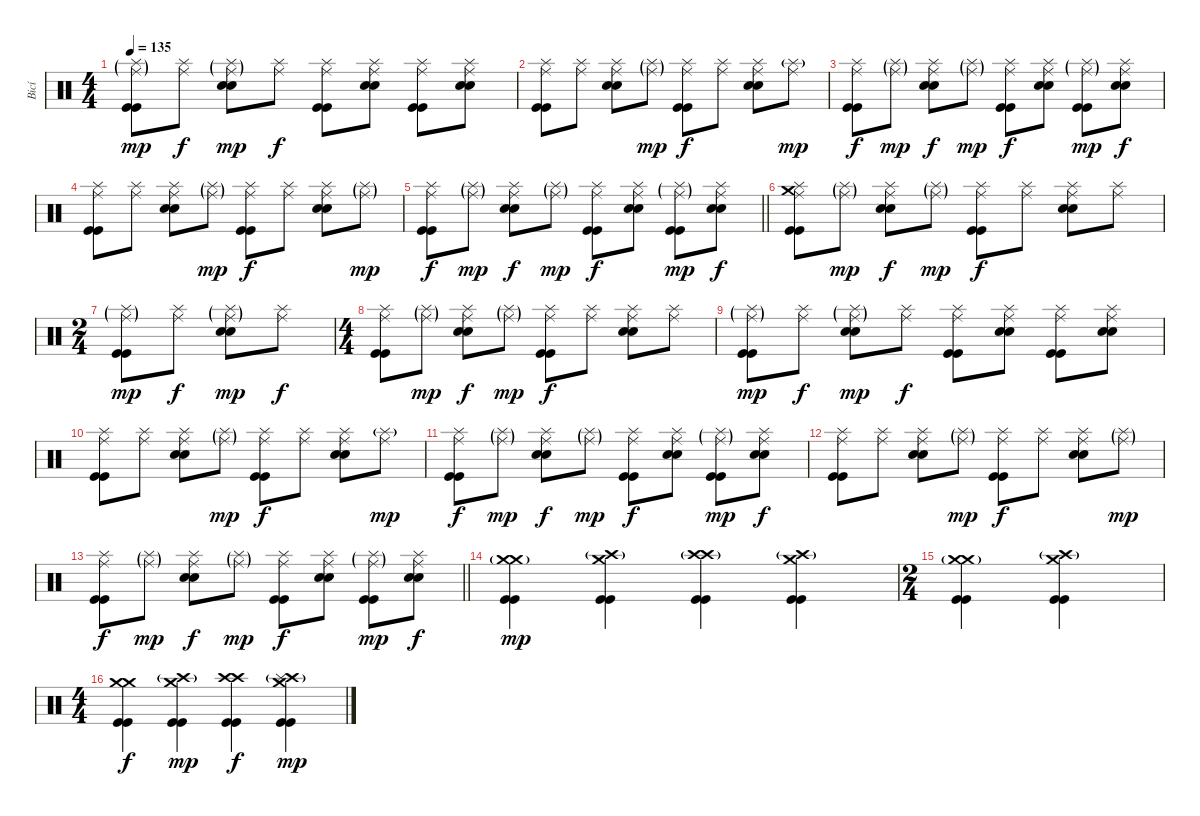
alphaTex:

\track ("Bicí" "Bicí") {instrument percussion}
\staff {score}
\articulation defaults
\ts (4 4)
\tempo 135
\clef neutral
\ks c
("Splash (hit)"{g} "Ride (middle)"{g} "Kick (hit)" "Kick (hit)").8{dy mp} ("Splash (hit)" "Ride (middle)").8{dy f} ("Splash (hit)"{g} "Ride (middle)"{g} "Electric Snare (hit)" "Electric Snare (hit)").8{dy mp} ("Splash (hit)" "Ride (middle)").8{dy f} ("Splash (hit)" "Ride (middle)" "Kick (hit)" "Kick (hit)").8 ("Splash (hit)" "Ride (middle)" "Electric Snare (hit)" "Electric Snare (hit)").8 ("Splash (hit)" "Ride (middle)" "Kick (hit)" "Kick (hit)").8 ("Splash (hit)" "Ride (middle)" "Electric Snare (hit)" "Electric Snare (hit)").8 |
("Splash (hit)" "Ride (middle)" "Kick (hit)" "Kick (hit)").8 ("Splash (hit)" "Ride (middle)").8 ("Splash (hit)" "Ride (middle)" "Electric Snare (hit)" "Electric Snare (hit)").8 ("Splash (hit)"{g} "Ride (middle)"{g}).8{dy mp} ("Splash (hit)" "Ride (middle)" "Kick (hit)" "Kick (hit)").8{dy f} ("Splash (hit)" "Ride (middle)").8 ("Splash (hit)" "Ride (middle)" "Electric Snare (hit)" "Electric Snare (hit)").8 ("Splash (hit)"{g} "Ride (middle)").8{dy mp} |
("Splash (hit)" "Ride (middle)" "Kick (hit)" "Kick (hit)").8{dy f} ("Splash (hit)"{g} "Ride (middle)"{g}).8{dy mp} ("Splash (hit)" "Ride (middle)" "Electric Snare (hit)" "Electric Snare (hit)").8{dy f} ("Splash (hit)"{g} "Ride (middle)"{g}).8{dy mp} ("Splash (hit)" "Ride (middle)" "Kick (hit)" "Kick (hit)").8{dy f} ("Splash (hit)" "Ride (middle)" "Electric Snare (hit)" "Electric Snare (hit)").8 ("Splash (hit)"{g} "Ride (middle)"{g} "Kick (hit)" "Kick (hit)").8{dy mp} ("Splash (hit)" "Ride (middle)" "Electric Snare (hit)" "Electric Snare (hit)").8{dy f} |
("Splash (hit)" "Ride (middle)" "Kick (hit)" "Kick (hit)").8 ("Splash (hit)" "Ride (middle)").8 ("Splash (hit)" "Ride (middle)" "Electric Snare (hit)" "Electric Snare (hit)").8 ("Splash (hit)"{g} "Ride (middle)"{g}).8{dy mp} ("Splash (hit)" "Ride (middle)" "Kick (hit)" "Kick (hit)").8{dy f} ("Splash (hit)" "Ride (middle)").8 ("Splash (hit)" "Ride (middle)" "Electric Snare (hit)" "Electric Snare (hit)").8 ("Splash (hit)"{g} "Ride (middle)"{g}).8{dy mp} |
\barLineRight lightlight
("Splash (hit)" "Ride (middle)" "Kick (hit)" "Kick (hit)").8{dy f} ("Splash (hit)"{g} "Ride (middle)"{g}).8{dy mp} ("Splash (hit)" "Ride (middle)" "Electric Snare (hit)" "Electric Snare (hit)").8{dy f} ("Splash (hit)"{g} "Ride (middle)"{g}).8{dy mp} ("Splash (hit)" "Ride (middle)" "Kick (hit)" "Kick (hit)").8{dy f} ("Splash (hit)" "Ride (middle)" "Electric Snare (hit)" "Electric Snare (hit)").8 ("Splash (hit)"{g} "Ride (middle)"{g} "Kick (hit)" "Kick (hit)").8{dy mp} ("Splash (hit)" "Ride (middle)" "Electric Snare (hit)" "Electric Snare (hit)").8{dy f} |
("Crash medium (hit)" "Splash (hit)" "Ride (middle)" "Kick (hit)" "Kick (hit)").8 ("Splash (hit)"{g} "Ride (middle)"{g}).8{dy mp} ("Splash (hit)" "Ride (middle)" "Electric Snare (hit)" "Electric Snare (hit)").8{dy f} ("Splash (hit)"{g} "Ride (middle)"{g}).8{dy mp} ("Splash (hit)" "Ride (middle)" "Kick (hit)" "Kick (hit)").8{dy f} ("Splash (hit)" "Ride (middle)").8 ("Splash (hit)" "Ride (middle)" "Electric Snare (hit)" "Electric Snare (hit)").8 ("Splash (hit)" "Ride (middle)").8 |
\ts (2 4)
("Splash (hit)"{g} "Ride (middle)"{g} "Kick (hit)" "Kick (hit)").8{dy mp} ("Splash (hit)" "Ride (middle)").8{dy f} ("Splash (hit)"{g} "Ride (middle)"{g} "Electric Snare (hit)" "Electric Snare (hit)").8{dy mp} ("Splash (hit)" "Ride (middle)").8{dy f} |
\ts (4 4)
("Splash (hit)" "Ride (middle)" "Kick (hit)" "Kick (hit)").8 ("Splash (hit)"{g} "Ride (middle)"{g}).8{dy mp} ("Splash (hit)" "Ride (middle)" "Electric Snare (hit)" "Electric Snare (hit)").8{dy f} ("Splash (hit)"{g} "Ride (middle)"{g}).8{dy mp} ("Splash (hit)" "Ride (middle)" "Kick (hit)" "Kick (hit)").8{dy f} ("Splash (hit)" "Ride (middle)").8 ("Splash (hit)" "Ride (middle)" "Electric Snare (hit)" "Electric Snare (hit)").8 ("Splash (hit)" "Ride (middle)").8 |
("Splash (hit)"{g} "Ride (middle)"{g} "Kick (hit)" "Kick (hit)").8{dy mp} ("Splash (hit)" "Ride (middle)").8{dy f} ("Splash (hit)"{g} "Ride (middle)"{g} "Electric Snare (hit)" "Electric Snare (hit)").8{dy mp} ("Splash (hit)" "Ride (middle)").8{dy f} ("Splash (hit)" "Ride (middle)" "Kick (hit)" "Kick (hit)").8 ("Splash (hit)" "Ride (middle)" "Electric Snare (hit)" "Electric Snare (hit)").8 ("Splash (hit)" "Ride (middle)" "Kick (hit)" "Kick (hit)").8 ("Splash (hit)" "Ride (middle)" "Electric Snare (hit)" "Electric Snare (hit)").8 |
("Splash (hit)" "Ride (middle)" "Kick (hit)" "Kick (hit)").8 ("Splash (hit)" "Ride (middle)").8 ("Splash (hit)" "Ride (middle)" "Electric Snare (hit)" "Electric Snare (hit)").8 ("Splash (hit)"{g} "Ride (middle)"{g}).8{dy mp} ("Splash (hit)" "Ride (middle)" "Kick (hit)" "Kick (hit)").8{dy f} ("Splash (hit)" "Ride (middle)").8 ("Splash (hit)" "Ride (middle)" "Electric Snare (hit)" "Electric Snare (hit)").8 ("Splash (hit)"{g} "Ride (middle)").8{dy mp} |
("Splash (hit)" "Ride (middle)" "Kick (hit)" "Kick (hit)").8{dy f} ("Splash (hit)"{g} "Ride (middle)"{g}).8{dy mp} ("Splash (hit)" "Ride (middle)" "Electric Snare (hit)" "Electric Snare (hit)").8{dy f} ("Splash (hit)"{g} "Ride (middle)"{g}).8{dy mp} ("Splash (hit)" "Ride (middle)" "Kick (hit)" "Kick (hit)").8{dy f} ("Splash (hit)" "Ride (middle)" "Electric Snare (hit)" "Electric Snare (hit)").8 ("Splash (hit)"{g} "Ride (middle)"{g} "Kick (hit)" "Kick (hit)").8{dy mp} ("Splash (hit)" "Ride (middle)" "Electric Snare (hit)" "Electric Snare (hit)").8{dy f} |
("Splash (hit)" "Ride (middle)" "Kick (hit)" "Kick (hit)").8 ("Splash (hit)" "Ride (middle)").8 ("Splash (hit)" "Ride (middle)" "Electric Snare (hit)" "Electric Snare (hit)").8 ("Splash (hit)"{g} "Ride (middle)"{g}).8{dy mp} ("Splash (hit)" "Ride (middle)" "Kick (hit)" "Kick (hit)").8{dy f} ("Splash (hit)" "Ride (middle)").8 ("Splash (hit)" "Ride (middle)" "Electric Snare (hit)" "Electric Snare (hit)").8 ("Splash (hit)"{g} "Ride (middle)"{g}).8{dy mp} |
\barLineRight lightlight
("Splash (hit)" "Ride (middle)" "Kick (hit)" "Kick (hit)").8{dy f} ("Splash (hit)"{g} "Ride (middle)"{g}).8{dy mp} ("Splash (hit)" "Ride (middle)" "Electric Snare (hit)" "Electric Snare (hit)").8{dy f} ("Splash (hit)"{g} "Ride (middle)"{g}).8{dy mp} ("Splash (hit)" "Ride (middle)" "Kick (hit)" "Kick (hit)").8{dy f} ("Splash (hit)" "Ride (middle)" "Electric Snare (hit)" "Electric Snare (hit)").8 ("Splash (hit)"{g} "Ride (middle)"{g} "Kick (hit)" "Kick (hit)").8{dy mp} ("Splash (hit)" "Ride (middle)" "Electric Snare (hit)" "Electric Snare (hit)").8{dy f} |
("Crash medium (hit)" "Crash medium (hit)"{g} "Kick (hit)" "Kick (hit)").4{dy mp} ("Crash medium (hit)" "Crash high (hit)"{g} "Kick (hit)" "Kick (hit)").4 ("Crash high (hit)" "Crash high (hit)"{g} "Kick (hit)" "Kick (hit)").4 ("Crash medium (hit)" "Crash high (hit)"{g} "Kick (hit)" "Kick (hit)").4 |
\ts (2 4)
("Crash medium (hit)" "Crash medium (hit)"{g} "Kick (hit)" "Kick (hit)").4 ("Crash medium (hit)" "Crash high (hit)"{g} "Kick (hit)" "Kick (hit)").4 |
\ts (4 4)
("Crash medium (hit)" "Crash medium (hit)" "Kick (hit)" "Kick (hit)").4{dy f} ("Crash medium (hit)" "Crash high (hit)"{g} "Kick (hit)" "Kick (hit)").4{dy mp} ("Crash high (hit)" "Crash high (hit)" "Kick (hit)" "Kick (hit)").4{dy f} ("Crash medium (hit)" "Crash high (hit)"{g} "Splash (hit)" "Kick (hit)" "Kick (hit)").4{dy mp}
